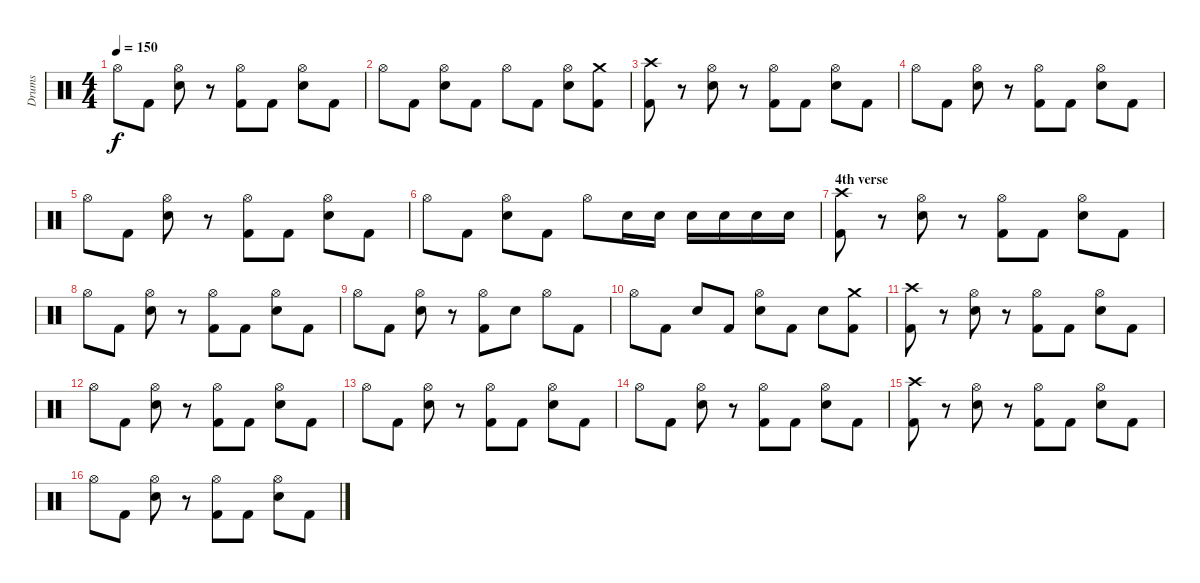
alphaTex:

\track ("Drums" "Drums") {instrument percussion}
\staff {score}
\articulation defaults
\ts (4 4)
\tempo 150
\clef neutral
\ks c "Hi-Hat (open)".8{dy f} "Kick (hit) 2".8
("Hi-Hat (open)" "Snare (hit) 2").8 r.8 ("Hi-Hat (open)" "Kick (hit) 2").8 "Kick (hit) 2".8 ("Hi-Hat (open)" "Snare (hit) 2").8 "Kick (hit) 2".8 |
"Hi-Hat (open)".8 "Kick (hit) 2".8 ("Hi-Hat (open)" "Snare (hit) 2").8 "Kick (hit) 2".8 "Hi-Hat (open)".8 "Kick (hit) 2".8 ("Hi-Hat (open)" "Snare (hit) 2").8 ("Crash medium (hit)" "Kick (hit) 2").8 |
("Crash high (hit)" "Kick (hit) 2").8 r.8 ("Hi-Hat (open)" "Snare (hit) 2").8 r.8 ("Hi-Hat (open)" "Kick (hit) 2").8 "Kick (hit) 2".8 ("Hi-Hat (open)" "Snare (hit) 2").8 "Kick (hit) 2".8 |
"Hi-Hat (open)".8 "Kick (hit) 2".8 ("Hi-Hat (open)" "Snare (hit) 2").8 r.8 ("Hi-Hat (open)" "Kick (hit) 2").8 "Kick (hit) 2".8 ("Hi-Hat (open)" "Snare (hit) 2").8 "Kick (hit) 2".8 |
"Hi-Hat (open)".8 "Kick (hit) 2".8 ("Hi-Hat (open)" "Snare (hit) 2").8 r.8 ("Hi-Hat (open)" "Kick (hit) 2").8 "Kick (hit) 2".8 ("Hi-Hat (open)" "Snare (hit) 2").8 "Kick (hit) 2".8 |
"Hi-Hat (open)".8 "Kick (hit) 2".8 ("Hi-Hat (open)" "Snare (hit) 2").8 "Kick (hit) 2".8 "Hi-Hat (open)".8 "Snare (hit) 2".16 "Snare (hit) 2".16 "Snare (hit) 2".16 "Snare (hit) 2".16 "Snare (hit) 2".16 "Snare (hit) 2".16 |
\section ("" "4th verse")
("Crash high (hit)" "Kick (hit) 2").8 r.8 ("Hi-Hat (open)" "Snare (hit) 2").8 r.8 ("Hi-Hat (open)" "Kick (hit) 2").8 "Kick (hit) 2".8 ("Hi-Hat (open)" "Snare (hit) 2").8 "Kick (hit) 2".8 |
"Hi-Hat (open)".8 "Kick (hit) 2".8 ("Hi-Hat (open)" "Snare (hit) 2").8 r.8 ("Hi-Hat (open)" "Kick (hit) 2").8 "Kick (hit) 2".8 ("Hi-Hat (open)" "Snare (hit) 2").8 "Kick (hit) 2".8 |
"Hi-Hat (open)".8 "Kick (hit) 2".8 ("Hi-Hat (open)" "Snare (hit) 2").8 r.8 ("Hi-Hat (open)" "Kick (hit) 2").8 "Snare (hit) 2".8 "Hi-Hat (open)".8 "Kick (hit) 2".8 |
"Hi-Hat (open)".8 "Kick (hit) 2".8 "Snare (hit) 2".8 "Kick (hit) 2".8 ("Hi-Hat (open)" "Snare (hit) 2").8 "Kick (hit) 2".8 "Snare (hit) 2".8 ("Crash medium (hit)" "Kick (hit) 2").8 |
("Crash high (hit)" "Kick (hit) 2").8 r.8 ("Hi-Hat (open)" "Snare (hit) 2").8 r.8 ("Hi-Hat (open)" "Kick (hit) 2").8 "Kick (hit) 2".8 ("Hi-Hat (open)" "Snare (hit) 2").8 "Kick (hit) 2".8 |
"Hi-Hat (open)".8 "Kick (hit) 2".8 ("Hi-Hat (open)" "Snare (hit) 2").8 r.8 ("Hi-Hat (open)" "Kick (hit) 2").8 "Kick (hit) 2".8 ("Hi-Hat (open)" "Snare (hit) 2").8 "Kick (hit) 2".8 |
"Hi-Hat (open)".8 "Kick (hit) 2".8 ("Hi-Hat (open)" "Snare (hit) 2").8 r.8 ("Hi-Hat (open)" "Kick (hit) 2").8 "Kick (hit) 2".8 ("Hi-Hat (open)" "Snare (hit) 2").8 "Kick (hit) 2".8 |
"Hi-Hat (open)".8 "Kick (hit) 2".8 ("Hi-Hat (open)" "Snare (hit) 2").8 r.8 ("Hi-Hat (open)" "Kick (hit) 2").8 "Kick (hit) 2".8 ("Hi-Hat (open)" "Snare (hit) 2").8 "Kick (hit) 2".8 |
("Crash high (hit)" "Kick (hit) 2").8 r.8 ("Hi-Hat (open)" "Snare (hit) 2").8 r.8 ("Hi-Hat (open)" "Kick (hit) 2").8 "Kick (hit) 2".8 ("Hi-Hat (open)" "Snare (hit) 2").8 "Kick (hit) 2".8 |
"Hi-Hat (open)".8 "Kick (hit) 2".8 ("Hi-Hat (open)" "Snare (hit) 2").8 r.8 ("Hi-Hat (open)" "Kick (hit) 2").8 "Kick (hit) 2".8 ("Hi-Hat (open)" "Snare (hit) 2").8 "Kick (hit) 2".8
